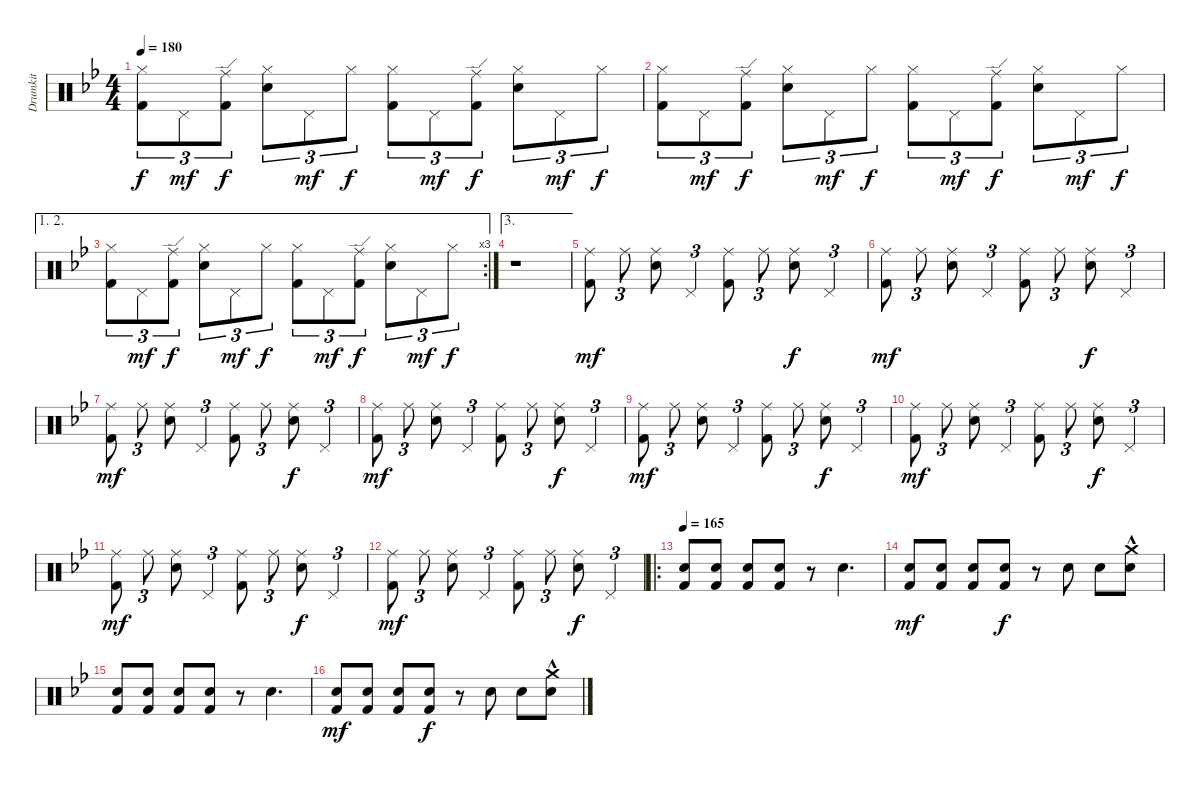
\track ("Drumkit" "Drumkit") {instrument percussion}
\staff {score}
\articulation defaults
\ts (4 4)
\tempo 180
\clef neutral
\ks bb
("Hi-Hat (closed)" "Kick (hit) 2").8{tu (3 2) dy f} "Pedal Hi-Hat (hit)".8{tu (3 2) dy mf} ("Kick (hit) 2" "Ride (edge)").8{tu (3 2) dy f} ("Hi-Hat (closed)" "Snare (hit) 2").8{tu (3 2)} "Pedal Hi-Hat (hit)".8{tu (3 2) dy mf} "Hi-Hat (closed)".8{tu (3 2) dy f} ("Hi-Hat (closed)" "Kick (hit) 2").8{tu (3 2)} "Pedal Hi-Hat (hit)".8{tu (3 2) dy mf} ("Kick (hit) 2" "Ride (edge)").8{tu (3 2) dy f} ("Hi-Hat (closed)" "Snare (hit) 2").8{tu (3 2)} "Pedal Hi-Hat (hit)".8{tu (3 2) dy mf} "Hi-Hat (closed)".8{tu (3 2) dy f} |
("Hi-Hat (closed)" "Kick (hit) 2").8{tu (3 2)} "Pedal Hi-Hat (hit)".8{tu (3 2) dy mf} ("Kick (hit) 2" "Ride (edge)").8{tu (3 2) dy f} ("Hi-Hat (closed)" "Snare (hit) 2").8{tu (3 2)} "Pedal Hi-Hat (hit)".8{tu (3 2) dy mf} "Hi-Hat (closed)".8{tu (3 2) dy f} ("Hi-Hat (closed)" "Kick (hit) 2").8{tu (3 2)} "Pedal Hi-Hat (hit)".8{tu (3 2) dy mf} ("Kick (hit) 2" "Ride (edge)").8{tu (3 2) dy f} ("Hi-Hat (closed)" "Snare (hit) 2").8{tu (3 2)} "Pedal Hi-Hat (hit)".8{tu (3 2) dy mf} "Hi-Hat (closed)".8{tu (3 2) dy f} |
\ae (1 2)
\rc 3
("Hi-Hat (closed)" "Kick (hit) 2").8{tu (3 2)} "Pedal Hi-Hat (hit)".8{tu (3 2) dy mf} ("Kick (hit) 2" "Ride (edge)").8{tu (3 2) dy f} ("Hi-Hat (closed)" "Snare (hit) 2").8{tu (3 2)} "Pedal Hi-Hat (hit)".8{tu (3 2) dy mf} "Hi-Hat (closed)".8{tu (3 2) dy f} ("Hi-Hat (closed)" "Kick (hit) 2").8{tu (3 2)} "Pedal Hi-Hat (hit)".8{tu (3 2) dy mf} ("Kick (hit) 2" "Ride (edge)").8{tu (3 2) dy f} ("Hi-Hat (closed)" "Snare (hit) 2").8{tu (3 2)} "Pedal Hi-Hat (hit)".8{tu (3 2) dy mf} "Hi-Hat (closed)".8{tu (3 2) dy f} |
\ae 3
r.1 |
("Ride (middle)" "Kick (hit) 2").8{dy mf} "Ride (middle)".8{tu (3 2)} ("Ride (middle)" "Snare (hit) 2").8 "Pedal Hi-Hat (hit)".4{tu (3 2)} ("Ride (middle)" "Kick (hit) 2").8 "Ride (middle)".8{tu (3 2)} ("Ride (middle)" "Snare (hit) 2").8{dy f} "Pedal Hi-Hat (hit)".4{tu (3 2)} |
("Ride (middle)" "Kick (hit) 2").8{dy mf} "Ride (middle)".8{tu (3 2)} ("Ride (middle)" "Snare (hit) 2").8 "Pedal Hi-Hat (hit)".4{tu (3 2)} ("Ride (middle)" "Kick (hit) 2").8 "Ride (middle)".8{tu (3 2)} ("Ride (middle)" "Snare (hit) 2").8{dy f} "Pedal Hi-Hat (hit)".4{tu (3 2)} |
("Ride (middle)" "Kick (hit) 2").8{dy mf} "Ride (middle)".8{tu (3 2)} ("Ride (middle)" "Snare (hit) 2").8 "Pedal Hi-Hat (hit)".4{tu (3 2)} ("Ride (middle)" "Kick (hit) 2").8 "Ride (middle)".8{tu (3 2)} ("Ride (middle)" "Snare (hit) 2").8{dy f} "Pedal Hi-Hat (hit)".4{tu (3 2)} |
("Ride (middle)" "Kick (hit) 2").8{dy mf} "Ride (middle)".8{tu (3 2)} ("Ride (middle)" "Snare (hit) 2").8 "Pedal Hi-Hat (hit)".4{tu (3 2)} ("Ride (middle)" "Kick (hit) 2").8 "Ride (middle)".8{tu (3 2)} ("Ride (middle)" "Snare (hit) 2").8{dy f} "Pedal Hi-Hat (hit)".4{tu (3 2)} |
("Ride (middle)" "Kick (hit) 2").8{dy mf} "Ride (middle)".8{tu (3 2)} ("Ride (middle)" "Snare (hit) 2").8 "Pedal Hi-Hat (hit)".4{tu (3 2)} ("Ride (middle)" "Kick (hit) 2").8 "Ride (middle)".8{tu (3 2)} ("Ride (middle)" "Snare (hit) 2").8{dy f} "Pedal Hi-Hat (hit)".4{tu (3 2)} |
("Ride (middle)" "Kick (hit) 2").8{dy mf} "Ride (middle)".8{tu (3 2)} ("Ride (middle)" "Snare (hit) 2").8 "Pedal Hi-Hat (hit)".4{tu (3 2)} ("Ride (middle)" "Kick (hit) 2").8 "Ride (middle)".8{tu (3 2)} ("Ride (middle)" "Snare (hit) 2").8{dy f} "Pedal Hi-Hat (hit)".4{tu (3 2)} |
("Ride (middle)" "Kick (hit) 2").8{dy mf} "Ride (middle)".8{tu (3 2)} ("Ride (middle)" "Snare (hit) 2").8 "Pedal Hi-Hat (hit)".4{tu (3 2)} ("Ride (middle)" "Kick (hit) 2").8 "Ride (middle)".8{tu (3 2)} ("Ride (middle)" "Snare (hit) 2").8{dy f} "Pedal Hi-Hat (hit)".4{tu (3 2)} |
("Ride (middle)" "Kick (hit) 2").8{dy mf} "Ride (middle)".8{tu (3 2)} ("Ride (middle)" "Snare (hit) 2").8 "Pedal Hi-Hat (hit)".4{tu (3 2)} ("Ride (middle)" "Kick (hit) 2").8 "Ride (middle)".8{tu (3 2)} ("Ride (middle)" "Snare (hit) 2").8{dy f} "Pedal Hi-Hat (hit)".4{tu (3 2)} |
\ro
\tempo 165
("Snare (hit) 2" "Kick (hit) 2").8 ("Snare (hit) 2" "Kick (hit) 2").8 ("Snare (hit) 2" "Kick (hit) 2").8 ("Snare (hit) 2" "Kick (hit) 2").8 r.8 "Snare (hit) 2".4{d} |
("Snare (hit) 2" "Kick (hit) 2").8{dy mf} ("Snare (hit) 2" "Kick (hit) 2").8 ("Snare (hit) 2" "Kick (hit) 2").8 ("Snare (hit) 2" "Kick (hit) 2").8{dy f} r.8 "Snare (hit) 2".8 "Snare (hit) 2".8 ("Snare (hit) 2" "Crash medium (hit)"{hac}).8 |
("Snare (hit) 2" "Kick (hit) 2").8 ("Snare (hit) 2" "Kick (hit) 2").8 ("Snare (hit) 2" "Kick (hit) 2").8 ("Snare (hit) 2" "Kick (hit) 2").8 r.8 "Snare (hit) 2".4{d} |
("Snare (hit) 2" "Kick (hit) 2").8{dy mf} ("Snare (hit) 2" "Kick (hit) 2").8 ("Snare (hit) 2" "Kick (hit) 2").8 ("Snare (hit) 2" "Kick (hit) 2").8{dy f} r.8 "Snare (hit) 2".8 "Snare (hit) 2".8 ("Snare (hit) 2" "Crash medium (hit)"{hac}).8
